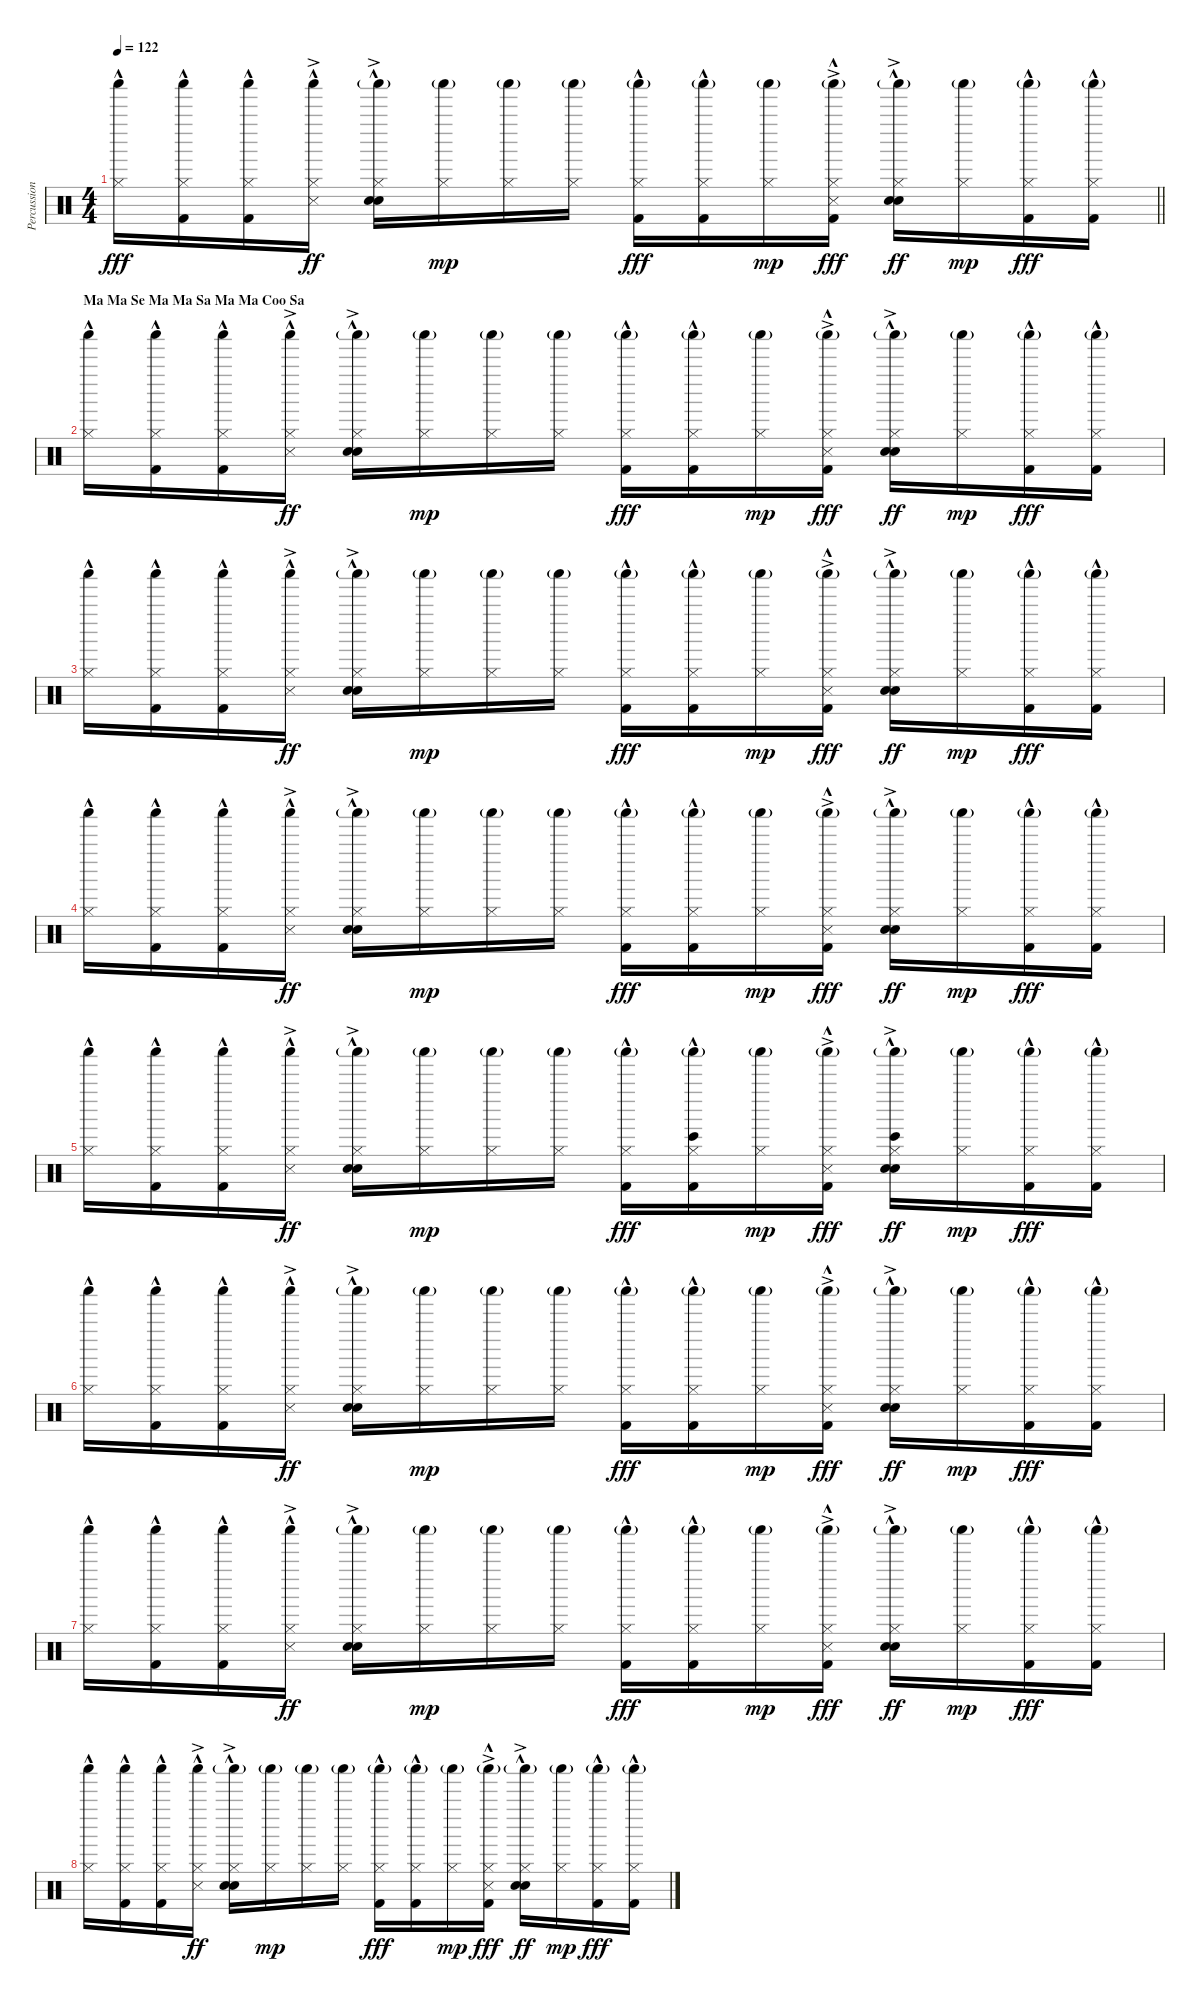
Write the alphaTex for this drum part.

\track ("Percussion" "Percussion") {instrument percussion}
\staff {score}
\articulation defaults
\ts (4 4)
\tempo 122
\clef neutral
\barLineRight lightlight
\ks c
("Shaker (hit)" "Hi-Hat (closed)"{hac}).16{dy fff} ("Shaker (hit)" "Hi-Hat (closed)"{hac} "Kick (hit) 2"{hac}).16 ("Shaker (hit)" "Hi-Hat (closed)"{hac} "Kick (hit) 2"{hac}).16 ("Shaker (hit)" "Hi-Hat (closed)"{hac} "Snare (side stick) 3"{ac}).16{dy ff} ("Shaker (hit)"{g} "Hi-Hat (closed)" "Hand Clap (hit)"{hac} "Snare (hit) 2"{ac}).16 ("Shaker (hit)"{g} "Hi-Hat (closed)").16{dy mp} ("Shaker (hit)"{g} "Hi-Hat (closed)").16 ("Shaker (hit)"{g} "Hi-Hat (closed)").16 ("Shaker (hit)"{g} "Hi-Hat (closed)" "Kick (hit) 2"{hac}).16{dy fff} ("Shaker (hit)"{g} "Hi-Hat (closed)" "Kick (hit) 2"{hac}).16 ("Shaker (hit)"{g} "Hi-Hat (closed)").16{dy mp} ("Shaker (hit)"{g} "Hi-Hat (closed)" "Snare (side stick) 3"{ac} "Kick (hit) 2"{hac}).16{dy fff} ("Shaker (hit)"{g} "Hi-Hat (closed)" "Hand Clap (hit)"{hac} "Snare (hit) 2"{ac}).16{dy ff} ("Shaker (hit)"{g} "Hi-Hat (closed)").16{dy mp} ("Shaker (hit)"{g} "Hi-Hat (closed)" "Kick (hit) 2"{hac}).16{dy fff} ("Shaker (hit)"{g} "Hi-Hat (closed)" "Kick (hit) 2"{hac}).16 |
\section ("" "Ma Ma Se Ma Ma Sa Ma Ma Coo Sa")
("Shaker (hit)" "Hi-Hat (closed)"{hac}).16 ("Shaker (hit)" "Hi-Hat (closed)"{hac} "Kick (hit) 2"{hac}).16 ("Shaker (hit)" "Hi-Hat (closed)"{hac} "Kick (hit) 2"{hac}).16 ("Shaker (hit)" "Hi-Hat (closed)"{hac} "Snare (side stick) 3"{ac}).16{dy ff} ("Shaker (hit)"{g} "Hi-Hat (closed)" "Hand Clap (hit)"{hac} "Snare (hit) 2"{ac}).16 ("Shaker (hit)"{g} "Hi-Hat (closed)").16{dy mp} ("Shaker (hit)"{g} "Hi-Hat (closed)").16 ("Shaker (hit)"{g} "Hi-Hat (closed)").16 ("Shaker (hit)"{g} "Hi-Hat (closed)" "Kick (hit) 2"{hac}).16{dy fff} ("Shaker (hit)"{g} "Hi-Hat (closed)" "Kick (hit) 2"{hac}).16 ("Shaker (hit)"{g} "Hi-Hat (closed)").16{dy mp} ("Shaker (hit)"{g} "Hi-Hat (closed)" "Snare (side stick) 3"{ac} "Kick (hit) 2"{hac}).16{dy fff} ("Shaker (hit)"{g} "Hi-Hat (closed)" "Hand Clap (hit)"{hac} "Snare (hit) 2"{ac}).16{dy ff} ("Shaker (hit)"{g} "Hi-Hat (closed)").16{dy mp} ("Shaker (hit)"{g} "Hi-Hat (closed)" "Kick (hit) 2"{hac}).16{dy fff} ("Shaker (hit)"{g} "Hi-Hat (closed)" "Kick (hit) 2"{hac}).16 |
("Shaker (hit)" "Hi-Hat (closed)"{hac}).16 ("Shaker (hit)" "Hi-Hat (closed)"{hac} "Kick (hit) 2"{hac}).16 ("Shaker (hit)" "Hi-Hat (closed)"{hac} "Kick (hit) 2"{hac}).16 ("Shaker (hit)" "Hi-Hat (closed)"{hac} "Snare (side stick) 3"{ac}).16{dy ff} ("Shaker (hit)"{g} "Hi-Hat (closed)" "Hand Clap (hit)"{hac} "Snare (hit) 2"{ac}).16 ("Shaker (hit)"{g} "Hi-Hat (closed)").16{dy mp} ("Shaker (hit)"{g} "Hi-Hat (closed)").16 ("Shaker (hit)"{g} "Hi-Hat (closed)").16 ("Shaker (hit)"{g} "Hi-Hat (closed)" "Kick (hit) 2"{hac}).16{dy fff} ("Shaker (hit)"{g} "Hi-Hat (closed)" "Kick (hit) 2"{hac}).16 ("Shaker (hit)"{g} "Hi-Hat (closed)").16{dy mp} ("Shaker (hit)"{g} "Hi-Hat (closed)" "Snare (side stick) 3"{ac} "Kick (hit) 2"{hac}).16{dy fff} ("Shaker (hit)"{g} "Hi-Hat (closed)" "Hand Clap (hit)"{hac} "Snare (hit) 2"{ac}).16{dy ff} ("Shaker (hit)"{g} "Hi-Hat (closed)").16{dy mp} ("Shaker (hit)"{g} "Hi-Hat (closed)" "Kick (hit) 2"{hac}).16{dy fff} ("Shaker (hit)"{g} "Hi-Hat (closed)" "Kick (hit) 2"{hac}).16 |
("Shaker (hit)" "Hi-Hat (closed)"{hac}).16 ("Shaker (hit)" "Hi-Hat (closed)"{hac} "Kick (hit) 2"{hac}).16 ("Shaker (hit)" "Hi-Hat (closed)"{hac} "Kick (hit) 2"{hac}).16 ("Shaker (hit)" "Hi-Hat (closed)"{hac} "Snare (side stick) 3"{ac}).16{dy ff} ("Shaker (hit)"{g} "Hi-Hat (closed)" "Hand Clap (hit)"{hac} "Snare (hit) 2"{ac}).16 ("Shaker (hit)"{g} "Hi-Hat (closed)").16{dy mp} ("Shaker (hit)"{g} "Hi-Hat (closed)").16 ("Shaker (hit)"{g} "Hi-Hat (closed)").16 ("Shaker (hit)"{g} "Hi-Hat (closed)" "Kick (hit) 2"{hac}).16{dy fff} ("Shaker (hit)"{g} "Hi-Hat (closed)" "Kick (hit) 2"{hac}).16 ("Shaker (hit)"{g} "Hi-Hat (closed)").16{dy mp} ("Shaker (hit)"{g} "Hi-Hat (closed)" "Snare (side stick) 3"{ac} "Kick (hit) 2"{hac}).16{dy fff} ("Shaker (hit)"{g} "Hi-Hat (closed)" "Hand Clap (hit)"{hac} "Snare (hit) 2"{ac}).16{dy ff} ("Shaker (hit)"{g} "Hi-Hat (closed)").16{dy mp} ("Shaker (hit)"{g} "Hi-Hat (closed)" "Kick (hit) 2"{hac}).16{dy fff} ("Shaker (hit)"{g} "Hi-Hat (closed)" "Kick (hit) 2"{hac}).16 |
("Shaker (hit)" "Hi-Hat (closed)"{hac}).16 ("Shaker (hit)" "Hi-Hat (closed)"{hac} "Kick (hit) 2"{hac}).16 ("Shaker (hit)" "Hi-Hat (closed)"{hac} "Kick (hit) 2"{hac}).16 ("Shaker (hit)" "Hi-Hat (closed)"{hac} "Snare (side stick) 3"{ac}).16{dy ff} ("Shaker (hit)"{g} "Hi-Hat (closed)" "Hand Clap (hit)"{hac} "Snare (hit) 2"{ac}).16 ("Shaker (hit)"{g} "Hi-Hat (closed)").16{dy mp} ("Shaker (hit)"{g} "Hi-Hat (closed)").16 ("Shaker (hit)"{g} "Hi-Hat (closed)").16 ("Shaker (hit)"{g} "Hi-Hat (closed)" "Kick (hit) 2"{hac}).16{dy fff} ("Bongo High (hit)"{hac} "Shaker (hit)"{g} "Hi-Hat (closed)" "Kick (hit) 2"{hac}).16 ("Shaker (hit)"{g} "Hi-Hat (closed)").16{dy mp} ("Shaker (hit)"{g} "Hi-Hat (closed)" "Snare (side stick) 3"{ac} "Kick (hit) 2"{hac}).16{dy fff} ("Bongo High (hit)"{hac} "Shaker (hit)"{g} "Hi-Hat (closed)" "Hand Clap (hit)"{hac} "Snare (hit) 2"{ac}).16{dy ff} ("Shaker (hit)"{g} "Hi-Hat (closed)").16{dy mp} ("Shaker (hit)"{g} "Hi-Hat (closed)" "Kick (hit) 2"{hac}).16{dy fff} ("Shaker (hit)"{g} "Hi-Hat (closed)" "Kick (hit) 2"{hac}).16 |
("Shaker (hit)" "Hi-Hat (closed)"{hac}).16 ("Shaker (hit)" "Hi-Hat (closed)"{hac} "Kick (hit) 2"{hac}).16 ("Shaker (hit)" "Hi-Hat (closed)"{hac} "Kick (hit) 2"{hac}).16 ("Shaker (hit)" "Hi-Hat (closed)"{hac} "Snare (side stick) 3"{ac}).16{dy ff} ("Shaker (hit)"{g} "Hi-Hat (closed)" "Hand Clap (hit)"{hac} "Snare (hit) 2"{ac}).16 ("Shaker (hit)"{g} "Hi-Hat (closed)").16{dy mp} ("Shaker (hit)"{g} "Hi-Hat (closed)").16 ("Shaker (hit)"{g} "Hi-Hat (closed)").16 ("Shaker (hit)"{g} "Hi-Hat (closed)" "Kick (hit) 2"{hac}).16{dy fff} ("Shaker (hit)"{g} "Hi-Hat (closed)" "Kick (hit) 2"{hac}).16 ("Shaker (hit)"{g} "Hi-Hat (closed)").16{dy mp} ("Shaker (hit)"{g} "Hi-Hat (closed)" "Snare (side stick) 3"{ac} "Kick (hit) 2"{hac}).16{dy fff} ("Shaker (hit)"{g} "Hi-Hat (closed)" "Hand Clap (hit)"{hac} "Snare (hit) 2"{ac}).16{dy ff} ("Shaker (hit)"{g} "Hi-Hat (closed)").16{dy mp} ("Shaker (hit)"{g} "Hi-Hat (closed)" "Kick (hit) 2"{hac}).16{dy fff} ("Shaker (hit)"{g} "Hi-Hat (closed)" "Kick (hit) 2"{hac}).16 |
("Shaker (hit)" "Hi-Hat (closed)"{hac}).16 ("Shaker (hit)" "Hi-Hat (closed)"{hac} "Kick (hit) 2"{hac}).16 ("Shaker (hit)" "Hi-Hat (closed)"{hac} "Kick (hit) 2"{hac}).16 ("Shaker (hit)" "Hi-Hat (closed)"{hac} "Snare (side stick) 3"{ac}).16{dy ff} ("Shaker (hit)"{g} "Hi-Hat (closed)" "Hand Clap (hit)"{hac} "Snare (hit) 2"{ac}).16 ("Shaker (hit)"{g} "Hi-Hat (closed)").16{dy mp} ("Shaker (hit)"{g} "Hi-Hat (closed)").16 ("Shaker (hit)"{g} "Hi-Hat (closed)").16 ("Shaker (hit)"{g} "Hi-Hat (closed)" "Kick (hit) 2"{hac}).16{dy fff} ("Shaker (hit)"{g} "Hi-Hat (closed)" "Kick (hit) 2"{hac}).16 ("Shaker (hit)"{g} "Hi-Hat (closed)").16{dy mp} ("Shaker (hit)"{g} "Hi-Hat (closed)" "Snare (side stick) 3"{ac} "Kick (hit) 2"{hac}).16{dy fff} ("Shaker (hit)"{g} "Hi-Hat (closed)" "Hand Clap (hit)"{hac} "Snare (hit) 2"{ac}).16{dy ff} ("Shaker (hit)"{g} "Hi-Hat (closed)").16{dy mp} ("Shaker (hit)"{g} "Hi-Hat (closed)" "Kick (hit) 2"{hac}).16{dy fff} ("Shaker (hit)"{g} "Hi-Hat (closed)" "Kick (hit) 2"{hac}).16 |
("Shaker (hit)" "Hi-Hat (closed)"{hac}).16 ("Shaker (hit)" "Hi-Hat (closed)"{hac} "Kick (hit) 2"{hac}).16 ("Shaker (hit)" "Hi-Hat (closed)"{hac} "Kick (hit) 2"{hac}).16 ("Shaker (hit)" "Hi-Hat (closed)"{hac} "Snare (side stick) 3"{ac}).16{dy ff} ("Shaker (hit)"{g} "Hi-Hat (closed)" "Hand Clap (hit)"{hac} "Snare (hit) 2"{ac}).16 ("Shaker (hit)"{g} "Hi-Hat (closed)").16{dy mp} ("Shaker (hit)"{g} "Hi-Hat (closed)").16 ("Shaker (hit)"{g} "Hi-Hat (closed)").16 ("Shaker (hit)"{g} "Hi-Hat (closed)" "Kick (hit) 2"{hac}).16{dy fff} ("Shaker (hit)"{g} "Hi-Hat (closed)" "Kick (hit) 2"{hac}).16 ("Shaker (hit)"{g} "Hi-Hat (closed)").16{dy mp} ("Shaker (hit)"{g} "Hi-Hat (closed)" "Snare (side stick) 3"{ac} "Kick (hit) 2"{hac}).16{dy fff} ("Shaker (hit)"{g} "Hi-Hat (closed)" "Hand Clap (hit)"{hac} "Snare (hit) 2"{ac}).16{dy ff} ("Shaker (hit)"{g} "Hi-Hat (closed)").16{dy mp} ("Shaker (hit)"{g} "Hi-Hat (closed)" "Kick (hit) 2"{hac}).16{dy fff} ("Shaker (hit)"{g} "Hi-Hat (closed)" "Kick (hit) 2"{hac}).16
